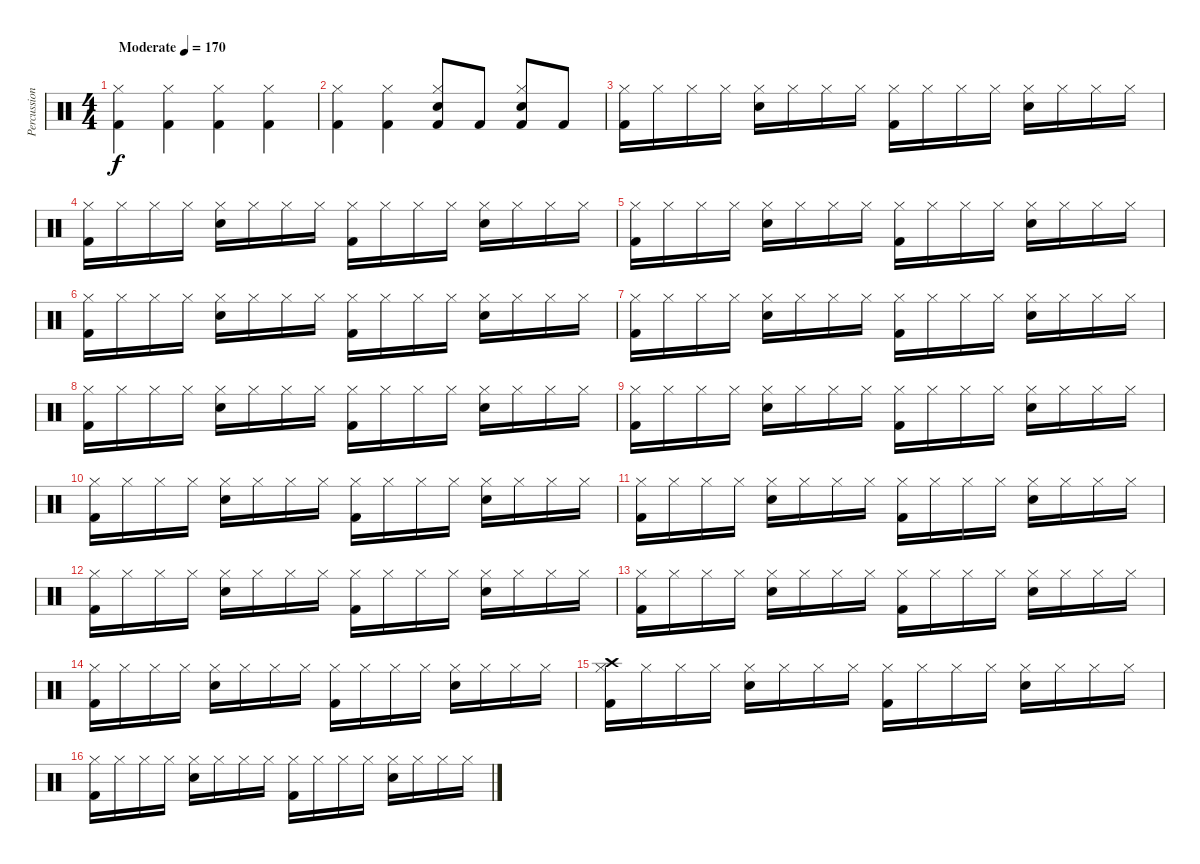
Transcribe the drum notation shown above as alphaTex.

\track ("Percussions" "Percussion") {instrument percussion}
\staff {score}
\articulation defaults
\ts (4 4)
\tempo (170 "Moderate")
\clef neutral
\ks c
("Kick (hit) 2" "Hi-Hat (closed)").4{dy f} ("Kick (hit) 2" "Hi-Hat (closed)").4 ("Kick (hit) 2" "Hi-Hat (closed)").4 ("Kick (hit) 2" "Hi-Hat (closed)").4 |
("Kick (hit) 2" "Hi-Hat (closed)").4 ("Kick (hit) 2" "Hi-Hat (closed)").4 ("Kick (hit) 2" "Hi-Hat (closed)" "Snare (hit) 2").8 "Kick (hit) 2".8 ("Snare (hit) 2" "Hi-Hat (closed)" "Kick (hit) 2").8 "Kick (hit) 2".8 |
("Hi-Hat (closed)" "Kick (hit) 2").16 "Hi-Hat (closed)".16 "Hi-Hat (closed)".16 "Hi-Hat (closed)".16 ("Hi-Hat (closed)" "Snare (hit) 2").16 "Hi-Hat (closed)".16 "Hi-Hat (closed)".16 "Hi-Hat (closed)".16 ("Hi-Hat (closed)" "Kick (hit) 2").16 "Hi-Hat (closed)".16 "Hi-Hat (closed)".16 "Hi-Hat (closed)".16 ("Hi-Hat (closed)" "Snare (hit) 2").16 "Hi-Hat (closed)".16 "Hi-Hat (closed)".16 "Hi-Hat (closed)".16 |
("Hi-Hat (closed)" "Kick (hit) 2").16 "Hi-Hat (closed)".16 "Hi-Hat (closed)".16 "Hi-Hat (closed)".16 ("Hi-Hat (closed)" "Snare (hit) 2").16 "Hi-Hat (closed)".16 "Hi-Hat (closed)".16 "Hi-Hat (closed)".16 ("Hi-Hat (closed)" "Kick (hit) 2").16 "Hi-Hat (closed)".16 "Hi-Hat (closed)".16 "Hi-Hat (closed)".16 ("Hi-Hat (closed)" "Snare (hit) 2").16 "Hi-Hat (closed)".16 "Hi-Hat (closed)".16 "Hi-Hat (closed)".16 |
("Hi-Hat (closed)" "Kick (hit) 2").16 "Hi-Hat (closed)".16 "Hi-Hat (closed)".16 "Hi-Hat (closed)".16 ("Hi-Hat (closed)" "Snare (hit) 2").16 "Hi-Hat (closed)".16 "Hi-Hat (closed)".16 "Hi-Hat (closed)".16 ("Hi-Hat (closed)" "Kick (hit) 2").16 "Hi-Hat (closed)".16 "Hi-Hat (closed)".16 "Hi-Hat (closed)".16 ("Hi-Hat (closed)" "Snare (hit) 2").16 "Hi-Hat (closed)".16 "Hi-Hat (closed)".16 "Hi-Hat (closed)".16 |
("Hi-Hat (closed)" "Kick (hit) 2").16 "Hi-Hat (closed)".16 "Hi-Hat (closed)".16 "Hi-Hat (closed)".16 ("Hi-Hat (closed)" "Snare (hit) 2").16 "Hi-Hat (closed)".16 "Hi-Hat (closed)".16 "Hi-Hat (closed)".16 ("Hi-Hat (closed)" "Kick (hit) 2").16 "Hi-Hat (closed)".16 "Hi-Hat (closed)".16 "Hi-Hat (closed)".16 ("Hi-Hat (closed)" "Snare (hit) 2").16 "Hi-Hat (closed)".16 "Hi-Hat (closed)".16 "Hi-Hat (closed)".16 |
("Hi-Hat (closed)" "Kick (hit) 2").16 "Hi-Hat (closed)".16 "Hi-Hat (closed)".16 "Hi-Hat (closed)".16 ("Hi-Hat (closed)" "Snare (hit) 2").16 "Hi-Hat (closed)".16 "Hi-Hat (closed)".16 "Hi-Hat (closed)".16 ("Hi-Hat (closed)" "Kick (hit) 2").16 "Hi-Hat (closed)".16 "Hi-Hat (closed)".16 "Hi-Hat (closed)".16 ("Hi-Hat (closed)" "Snare (hit) 2").16 "Hi-Hat (closed)".16 "Hi-Hat (closed)".16 "Hi-Hat (closed)".16 |
("Hi-Hat (closed)" "Kick (hit) 2").16 "Hi-Hat (closed)".16 "Hi-Hat (closed)".16 "Hi-Hat (closed)".16 ("Hi-Hat (closed)" "Snare (hit) 2").16 "Hi-Hat (closed)".16 "Hi-Hat (closed)".16 "Hi-Hat (closed)".16 ("Hi-Hat (closed)" "Kick (hit) 2").16 "Hi-Hat (closed)".16 "Hi-Hat (closed)".16 "Hi-Hat (closed)".16 ("Hi-Hat (closed)" "Snare (hit) 2").16 "Hi-Hat (closed)".16 "Hi-Hat (closed)".16 "Hi-Hat (closed)".16 |
("Hi-Hat (closed)" "Kick (hit) 2").16 "Hi-Hat (closed)".16 "Hi-Hat (closed)".16 "Hi-Hat (closed)".16 ("Hi-Hat (closed)" "Snare (hit) 2").16 "Hi-Hat (closed)".16 "Hi-Hat (closed)".16 "Hi-Hat (closed)".16 ("Hi-Hat (closed)" "Kick (hit) 2").16 "Hi-Hat (closed)".16 "Hi-Hat (closed)".16 "Hi-Hat (closed)".16 ("Hi-Hat (closed)" "Snare (hit) 2").16 "Hi-Hat (closed)".16 "Hi-Hat (closed)".16 "Hi-Hat (closed)".16 |
("Hi-Hat (closed)" "Kick (hit) 2").16 "Hi-Hat (closed)".16 "Hi-Hat (closed)".16 "Hi-Hat (closed)".16 ("Hi-Hat (closed)" "Snare (hit) 2").16 "Hi-Hat (closed)".16 "Hi-Hat (closed)".16 "Hi-Hat (closed)".16 ("Hi-Hat (closed)" "Kick (hit) 2").16 "Hi-Hat (closed)".16 "Hi-Hat (closed)".16 "Hi-Hat (closed)".16 ("Hi-Hat (closed)" "Snare (hit) 2").16 "Hi-Hat (closed)".16 "Hi-Hat (closed)".16 "Hi-Hat (closed)".16 |
("Hi-Hat (closed)" "Kick (hit) 2").16 "Hi-Hat (closed)".16 "Hi-Hat (closed)".16 "Hi-Hat (closed)".16 ("Hi-Hat (closed)" "Snare (hit) 2").16 "Hi-Hat (closed)".16 "Hi-Hat (closed)".16 "Hi-Hat (closed)".16 ("Hi-Hat (closed)" "Kick (hit) 2").16 "Hi-Hat (closed)".16 "Hi-Hat (closed)".16 "Hi-Hat (closed)".16 ("Hi-Hat (closed)" "Snare (hit) 2").16 "Hi-Hat (closed)".16 "Hi-Hat (closed)".16 "Hi-Hat (closed)".16 |
("Hi-Hat (closed)" "Kick (hit) 2").16 "Hi-Hat (closed)".16 "Hi-Hat (closed)".16 "Hi-Hat (closed)".16 ("Hi-Hat (closed)" "Snare (hit) 2").16 "Hi-Hat (closed)".16 "Hi-Hat (closed)".16 "Hi-Hat (closed)".16 ("Hi-Hat (closed)" "Kick (hit) 2").16 "Hi-Hat (closed)".16 "Hi-Hat (closed)".16 "Hi-Hat (closed)".16 ("Hi-Hat (closed)" "Snare (hit) 2").16 "Hi-Hat (closed)".16 "Hi-Hat (closed)".16 "Hi-Hat (closed)".16 |
("Hi-Hat (closed)" "Kick (hit) 2").16 "Hi-Hat (closed)".16 "Hi-Hat (closed)".16 "Hi-Hat (closed)".16 ("Hi-Hat (closed)" "Snare (hit) 2").16 "Hi-Hat (closed)".16 "Hi-Hat (closed)".16 "Hi-Hat (closed)".16 ("Hi-Hat (closed)" "Kick (hit) 2").16 "Hi-Hat (closed)".16 "Hi-Hat (closed)".16 "Hi-Hat (closed)".16 ("Hi-Hat (closed)" "Snare (hit) 2").16 "Hi-Hat (closed)".16 "Hi-Hat (closed)".16 "Hi-Hat (closed)".16 |
("Hi-Hat (closed)" "Kick (hit) 2").16 "Hi-Hat (closed)".16 "Hi-Hat (closed)".16 "Hi-Hat (closed)".16 ("Hi-Hat (closed)" "Snare (hit) 2").16 "Hi-Hat (closed)".16 "Hi-Hat (closed)".16 "Hi-Hat (closed)".16 ("Hi-Hat (closed)" "Kick (hit) 2").16 "Hi-Hat (closed)".16 "Hi-Hat (closed)".16 "Hi-Hat (closed)".16 ("Hi-Hat (closed)" "Snare (hit) 2").16 "Hi-Hat (closed)".16 "Hi-Hat (closed)".16 "Hi-Hat (closed)".16 |
("Hi-Hat (closed)" "Kick (hit) 2" "Crash high (hit)").16 "Hi-Hat (closed)".16 "Hi-Hat (closed)".16 "Hi-Hat (closed)".16 ("Hi-Hat (closed)" "Snare (hit) 2").16 "Hi-Hat (closed)".16 "Hi-Hat (closed)".16 "Hi-Hat (closed)".16 ("Hi-Hat (closed)" "Kick (hit) 2").16 "Hi-Hat (closed)".16 "Hi-Hat (closed)".16 "Hi-Hat (closed)".16 ("Hi-Hat (closed)" "Snare (hit) 2").16 "Hi-Hat (closed)".16 "Hi-Hat (closed)".16 "Hi-Hat (closed)".16 |
("Hi-Hat (closed)" "Kick (hit) 2").16 "Hi-Hat (closed)".16 "Hi-Hat (closed)".16 "Hi-Hat (closed)".16 ("Hi-Hat (closed)" "Snare (hit) 2").16 "Hi-Hat (closed)".16 "Hi-Hat (closed)".16 "Hi-Hat (closed)".16 ("Hi-Hat (closed)" "Kick (hit) 2").16 "Hi-Hat (closed)".16 "Hi-Hat (closed)".16 "Hi-Hat (closed)".16 ("Hi-Hat (closed)" "Snare (hit) 2").16 "Hi-Hat (closed)".16 "Hi-Hat (closed)".16 "Hi-Hat (closed)".16
